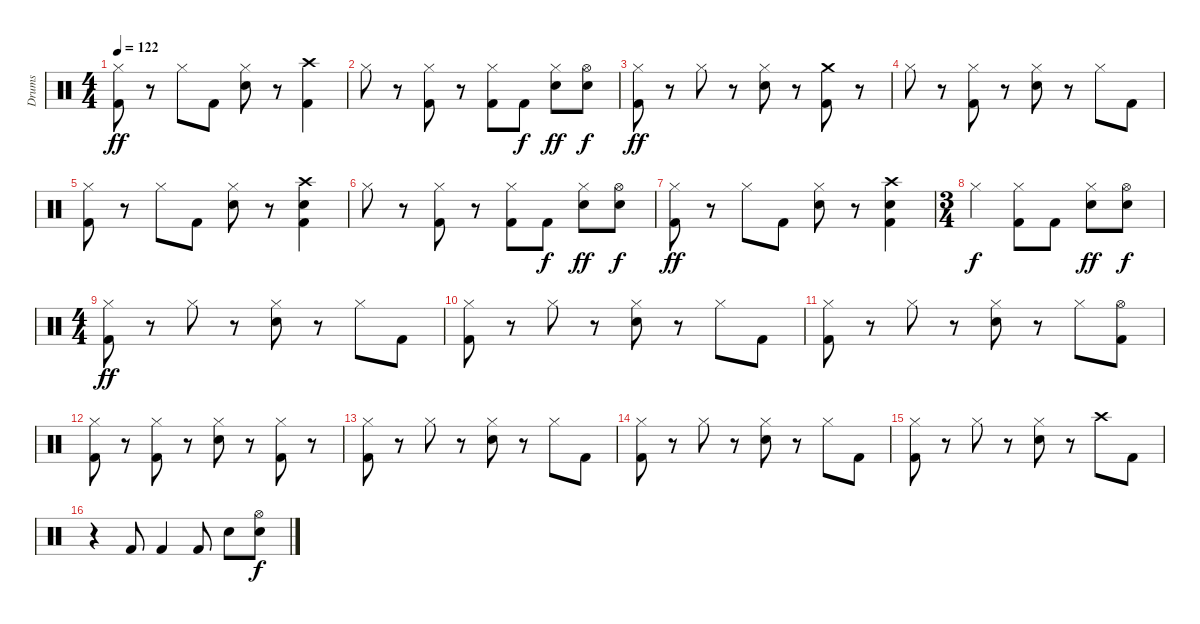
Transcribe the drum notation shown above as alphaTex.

\track ("Drums" "Drums") {instrument percussion}
\staff {score}
\articulation defaults
\ts (4 4)
\tempo 122
\clef neutral
\ks c
("Hi-Hat (closed)" "Kick (hit) 2").8{dy ff} r.8 "Hi-Hat (closed)".8 "Kick (hit) 2".8 ("Hi-Hat (closed)" "Snare (hit) 2").8 r.8 ("Crash high (hit)" "Kick (hit) 2").4 |
"Hi-Hat (closed)".8 r.8 ("Hi-Hat (closed)" "Kick (hit) 2").8 r.8 ("Hi-Hat (closed)" "Kick (hit) 2").8 "Kick (hit) 2".8{dy f} ("Hi-Hat (closed)" "Snare (hit) 2").8{dy ff} ("Hi-Hat (open)" "Snare (hit) 2").8{dy f} |
("Hi-Hat (closed)" "Kick (hit) 2").8{dy ff} r.8 "Hi-Hat (closed)".8 r.8 ("Hi-Hat (closed)" "Snare (hit) 2").8 r.8 ("Crash medium (hit)" "Kick (hit) 2").8 r.8 |
"Hi-Hat (closed)".8 r.8 ("Hi-Hat (closed)" "Kick (hit) 2").8 r.8 ("Hi-Hat (closed)" "Snare (hit) 2").8 r.8 "Hi-Hat (closed)".8 "Kick (hit) 2".8 |
("Hi-Hat (closed)" "Kick (hit) 2").8 r.8 "Hi-Hat (closed)".8 "Kick (hit) 2".8 ("Hi-Hat (closed)" "Snare (hit) 2").8 r.8 ("Crash high (hit)" "Snare (hit) 2" "Kick (hit) 2").4 |
"Hi-Hat (closed)".8 r.8 ("Hi-Hat (closed)" "Kick (hit) 2").8 r.8 ("Hi-Hat (closed)" "Kick (hit) 2").8 "Kick (hit) 2".8{dy f} ("Hi-Hat (closed)" "Snare (hit) 2").8{dy ff} ("Hi-Hat (open)" "Snare (hit) 2").8{dy f} |
("Hi-Hat (closed)" "Kick (hit) 2").8{dy ff} r.8 "Hi-Hat (closed)".8 "Kick (hit) 2".8 ("Hi-Hat (closed)" "Snare (hit) 2").8 r.8 ("Crash high (hit)" "Snare (hit) 2" "Kick (hit) 2").4 |
\ts (3 4)
"Hi-Hat (closed)".4{dy f} ("Hi-Hat (closed)" "Kick (hit) 2").8 "Kick (hit) 2".8 ("Hi-Hat (closed)" "Snare (hit) 2").8{dy ff} ("Hi-Hat (open)" "Snare (hit) 2").8{dy f} |
\ts (4 4)
("Hi-Hat (closed)" "Kick (hit) 2").8{dy ff} r.8 "Hi-Hat (closed)".8 r.8 ("Hi-Hat (closed)" "Snare (hit) 2").8 r.8 "Hi-Hat (closed)".8 "Kick (hit) 2".8 |
("Hi-Hat (closed)" "Kick (hit) 2").8 r.8 "Hi-Hat (closed)".8 r.8 ("Hi-Hat (closed)" "Snare (hit) 2").8 r.8 "Hi-Hat (closed)".8 "Kick (hit) 2".8 |
("Hi-Hat (closed)" "Kick (hit) 2").8 r.8 "Hi-Hat (closed)".8 r.8 ("Hi-Hat (closed)" "Snare (hit) 2").8 r.8 "Hi-Hat (closed)".8 ("Hi-Hat (open)" "Kick (hit) 2").8 |
("Hi-Hat (closed)" "Kick (hit) 2").8 r.8 ("Hi-Hat (closed)" "Kick (hit) 2").8 r.8 ("Hi-Hat (closed)" "Snare (hit) 2").8 r.8 ("Hi-Hat (closed)" "Kick (hit) 2").8 r.8 |
("Hi-Hat (closed)" "Kick (hit) 2").8 r.8 "Hi-Hat (closed)".8 r.8 ("Hi-Hat (closed)" "Snare (hit) 2").8 r.8 "Hi-Hat (closed)".8 "Kick (hit) 2".8 |
("Hi-Hat (closed)" "Kick (hit) 2").8 r.8 "Hi-Hat (closed)".8 r.8 ("Hi-Hat (closed)" "Snare (hit) 2").8 r.8 "Hi-Hat (closed)".8 "Kick (hit) 2".8 |
("Hi-Hat (closed)" "Kick (hit) 2").8 r.8 "Hi-Hat (closed)".8 r.8 ("Hi-Hat (closed)" "Snare (hit) 2").8 r.8 "Crash high (hit)".8 "Kick (hit) 2".8 |
r.4 "Kick (hit) 2".8 "Kick (hit) 2".4 "Kick (hit) 2".8 "Snare (hit) 2".8 ("Hi-Hat (open)" "Snare (hit) 2").8{dy f}
